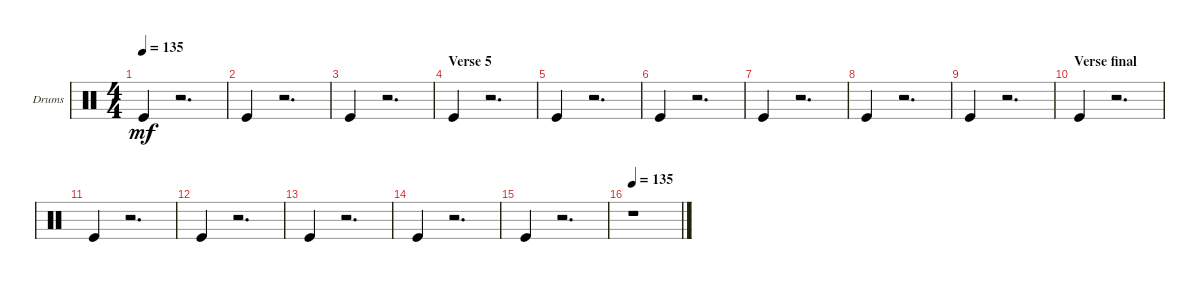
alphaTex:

\bracketExtendMode groupsimilarinstruments
\firstSystemTrackNameOrientation horizontal
\otherSystemsTrackNameOrientation horizontal
\chordDiagramsInScore
\track ("Drumkit" "Drums") {instrument percussion}
\staff {score}
\articulation defaults
\ts (4 4)
\tempo 135
\clef neutral
\ks c "Kick (hit)".4{dy mf}
r.2{d} |
"Kick (hit)".4 r.2{d} |
"Kick (hit)".4 r.2{d} |
\section ("" "Verse 5")
"Kick (hit)".4 r.2{d} |
"Kick (hit)".4 r.2{d} |
"Kick (hit)".4 r.2{d} |
"Kick (hit)".4 r.2{d} |
"Kick (hit)".4 r.2{d} |
"Kick (hit)".4 r.2{d} |
\section ("" "Verse final")
"Kick (hit)".4 r.2{d} |
"Kick (hit)".4 r.2{d} |
"Kick (hit)".4 r.2{d} |
"Kick (hit)".4 r.2{d} |
"Kick (hit)".4 r.2{d} |
"Kick (hit)".4 r.2{d} |
\tempo 135
r.1
